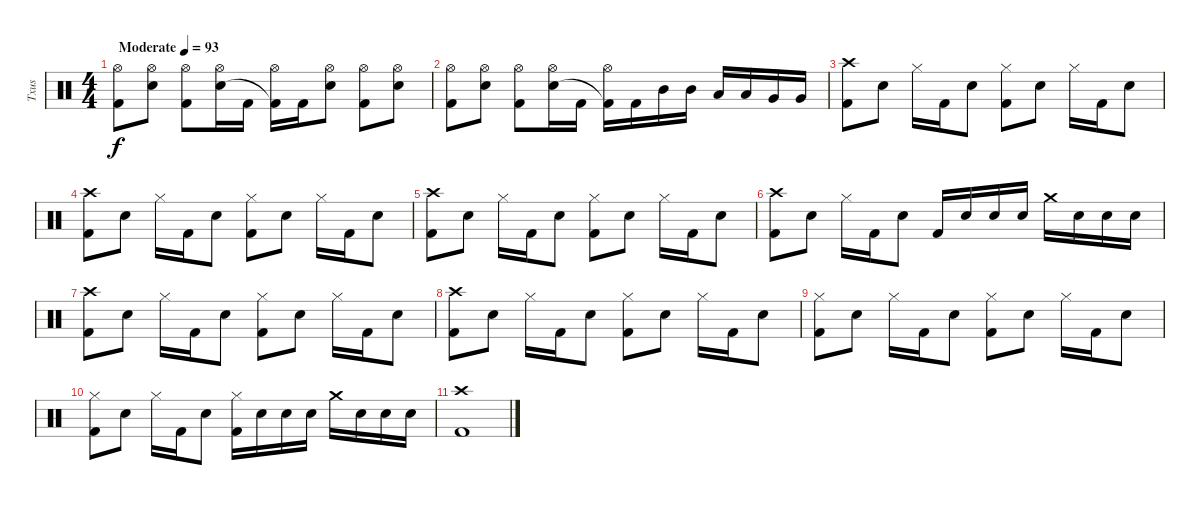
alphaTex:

\track ("Txus" "Txus") {instrument percussion}
\staff {score}
\articulation defaults
\ts (4 4)
\tempo (93 "Moderate")
\clef neutral
\ks c
("Hi-Hat (open)" "Kick (hit) 2").8{dy f} ("Hi-Hat (open)" "Electric Snare (hit)").8 ("Hi-Hat (open)" "Kick (hit) 2").8 ("Hi-Hat (open)" "Electric Snare (hit)").16 "Kick (hit) 2".16 ("Hi-Hat (open)" "Kick (hit) 2"{t}).16 "Kick (hit) 2".16 ("Hi-Hat (open)" "Electric Snare (hit)").8 ("Hi-Hat (open)" "Kick (hit) 2").8 ("Hi-Hat (open)" "Electric Snare (hit)").8 |
("Hi-Hat (open)" "Kick (hit) 2").8 ("Hi-Hat (open)" "Electric Snare (hit)").8 ("Hi-Hat (open)" "Kick (hit) 2").8 ("Hi-Hat (open)" "Electric Snare (hit)").16 "Kick (hit) 2".16 ("Hi-Hat (open)" "Kick (hit) 2"{t}).16 "Kick (hit) 2".16 "Mid Tom (hit)".16 "Mid Tom (hit)".16 "Low Tom (hit)".16 "Low Tom (hit)".16 "Very Low Tom (hit)".16 "Very Low Tom (hit)".16 |
("Crash high (hit)" "Kick (hit) 2").8 "Electric Snare (hit)".8 "Hi-Hat (closed)".16 "Kick (hit) 2".16 "Electric Snare (hit)".8 ("Hi-Hat (closed)" "Kick (hit) 2").8 "Electric Snare (hit)".8 "Hi-Hat (closed)".16 "Kick (hit) 2".16 "Electric Snare (hit)".8 |
("Crash high (hit)" "Kick (hit) 2").8 "Electric Snare (hit)".8 "Hi-Hat (closed)".16 "Kick (hit) 2".16 "Electric Snare (hit)".8 ("Hi-Hat (closed)" "Kick (hit) 2").8 "Electric Snare (hit)".8 "Hi-Hat (closed)".16 "Kick (hit) 2".16 "Electric Snare (hit)".8 |
("Crash high (hit)" "Kick (hit) 2").8 "Electric Snare (hit)".8 "Hi-Hat (closed)".16 "Kick (hit) 2".16 "Electric Snare (hit)".8 ("Hi-Hat (closed)" "Kick (hit) 2").8 "Electric Snare (hit)".8 "Hi-Hat (closed)".16 "Kick (hit) 2".16 "Electric Snare (hit)".8 |
("Crash high (hit)" "Kick (hit) 2").8 "Electric Snare (hit)".8 "Hi-Hat (closed)".16 "Kick (hit) 2".16 "Electric Snare (hit)".8 "Kick (hit) 2".16 "Electric Snare (hit)".16 "Electric Snare (hit)".16 "Electric Snare (hit)".16 "Crash medium (hit)".16 "Electric Snare (hit)".16 "Electric Snare (hit)".16 "Electric Snare (hit)".16 |
("Crash high (hit)" "Kick (hit) 2").8 "Electric Snare (hit)".8 "Hi-Hat (closed)".16 "Kick (hit) 2".16 "Electric Snare (hit)".8 ("Hi-Hat (closed)" "Kick (hit) 2").8 "Electric Snare (hit)".8 "Hi-Hat (closed)".16 "Kick (hit) 2".16 "Electric Snare (hit)".8 |
("Crash high (hit)" "Kick (hit) 2").8 "Electric Snare (hit)".8 "Hi-Hat (closed)".16 "Kick (hit) 2".16 "Electric Snare (hit)".8 ("Hi-Hat (closed)" "Kick (hit) 2").8 "Electric Snare (hit)".8 "Hi-Hat (closed)".16 "Kick (hit) 2".16 "Electric Snare (hit)".8 |
("Hi-Hat (closed)" "Kick (hit) 2").8 "Electric Snare (hit)".8 "Hi-Hat (closed)".16 "Kick (hit) 2".16 "Electric Snare (hit)".8 ("Hi-Hat (closed)" "Kick (hit) 2").8 "Electric Snare (hit)".8 "Hi-Hat (closed)".16 "Kick (hit) 2".16 "Electric Snare (hit)".8 |
("Hi-Hat (closed)" "Kick (hit) 2").8 "Electric Snare (hit)".8 "Hi-Hat (closed)".16 "Kick (hit) 2".16 "Electric Snare (hit)".8 ("Hi-Hat (closed)" "Kick (hit) 2").16 "Electric Snare (hit)".16 "Electric Snare (hit)".16 "Electric Snare (hit)".16 "Crash medium (hit)".16 "Electric Snare (hit)".16 "Electric Snare (hit)".16 "Electric Snare (hit)".16 |
("Crash high (hit)" "Kick (hit) 2").1
